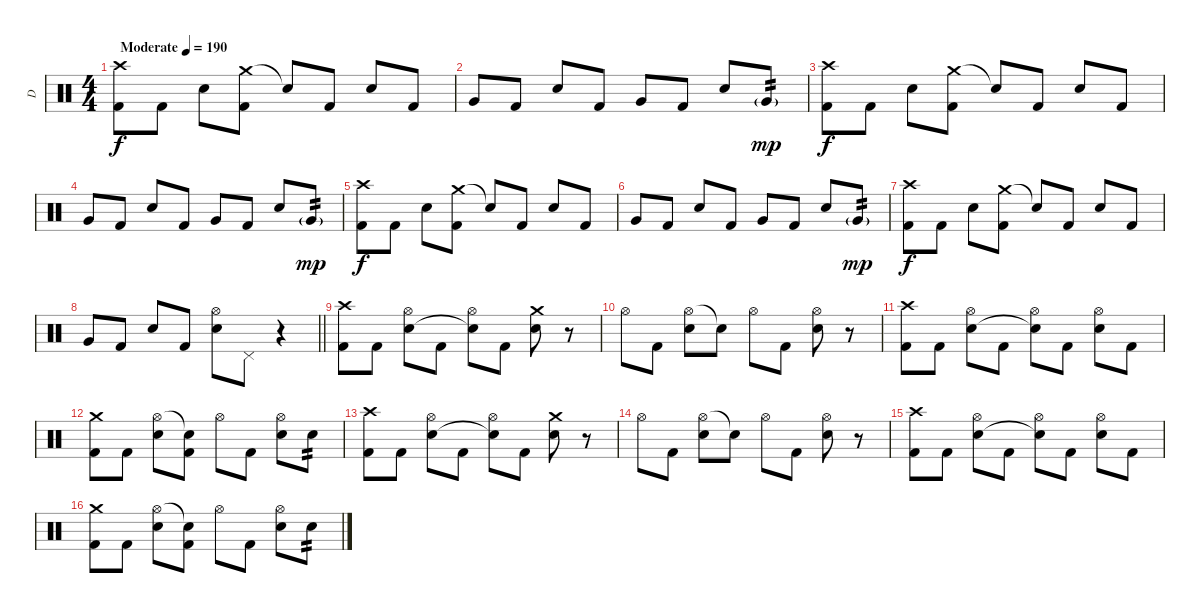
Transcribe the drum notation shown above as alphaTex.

\track ("D" "D") {instrument percussion}
\staff {score}
\articulation defaults
\ts (4 4)
\section ("" "")
\tempo (190 "Moderate")
\clef neutral
\ks c
("Crash high (hit)" "Kick (hit) 2").8{dy f} "Kick (hit) 2".8 "Electric Snare (hit)".8 ("Crash medium (hit)" "Kick (hit) 2").8 "Snare (hit)"{t}.8 "Kick (hit) 2".8 "Electric Snare (hit)".8 "Kick (hit) 2".8 |
"Very Low Tom (hit)".8 "Kick (hit) 2".8 "Electric Snare (hit)".8 "Kick (hit) 2".8 "Very Low Tom (hit)".8 "Kick (hit) 2".8 "Electric Snare (hit)".8 "Very Low Tom (hit)"{g}.8{tp 2 dy mp} |
("Crash high (hit)" "Kick (hit) 2").8{dy f} "Kick (hit) 2".8 "Electric Snare (hit)".8 ("Crash medium (hit)" "Kick (hit) 2").8 "Snare (hit)"{t}.8 "Kick (hit) 2".8 "Electric Snare (hit)".8 "Kick (hit) 2".8 |
"Very Low Tom (hit)".8 "Kick (hit) 2".8 "Electric Snare (hit)".8 "Kick (hit) 2".8 "Very Low Tom (hit)".8 "Kick (hit) 2".8 "Electric Snare (hit)".8 "Very Low Tom (hit)"{g}.8{tp 2 dy mp} |
("Crash high (hit)" "Kick (hit) 2").8{dy f} "Kick (hit) 2".8 "Electric Snare (hit)".8 ("Crash medium (hit)" "Kick (hit) 2").8 "Snare (hit)"{t}.8 "Kick (hit) 2".8 "Electric Snare (hit)".8 "Kick (hit) 2".8 |
"Very Low Tom (hit)".8 "Kick (hit) 2".8 "Electric Snare (hit)".8 "Kick (hit) 2".8 "Very Low Tom (hit)".8 "Kick (hit) 2".8 "Electric Snare (hit)".8 "Very Low Tom (hit)"{g}.8{tp 2 dy mp} |
("Crash high (hit)" "Kick (hit) 2").8{dy f} "Kick (hit) 2".8 "Electric Snare (hit)".8 ("Crash medium (hit)" "Kick (hit) 2").8 "Snare (hit)"{t}.8 "Kick (hit) 2".8 "Electric Snare (hit)".8 "Kick (hit) 2".8 |
\barLineRight lightlight "Very Low Tom (hit)".8 "Kick (hit) 2".8 "Electric Snare (hit)".8 "Kick (hit) 2".8
("Hi-Hat (open)" "Electric Snare (hit)").8 "Pedal Hi-Hat (hit)".8 r.4 |
\section ("" "")
("Crash high (hit)" "Kick (hit) 2").8 "Kick (hit) 2".8 ("Hi-Hat (open)" "Electric Snare (hit)").8 "Kick (hit) 2".8 ("Hi-Hat (open)" "Snare (hit)"{t}).8 "Kick (hit) 2".8 ("Crash medium (hit)" "Electric Snare (hit)").8 r.8 |
"Hi-Hat (open)".8 "Kick (hit) 2".8 ("Hi-Hat (open)" "Electric Snare (hit)").8 "Snare (hit)"{t}.8 "Hi-Hat (open)".8 "Kick (hit) 2".8 ("Hi-Hat (open)" "Electric Snare (hit)").8 r.8 |
("Crash high (hit)" "Kick (hit) 2").8 "Kick (hit) 2".8 ("Hi-Hat (open)" "Electric Snare (hit)").8 "Kick (hit) 2".8 ("Hi-Hat (open)" "Snare (hit)"{t}).8 "Kick (hit) 2".8 ("Hi-Hat (open)" "Electric Snare (hit)").8 "Kick (hit) 2".8 |
("Crash medium (hit)" "Kick (hit) 2").8 "Kick (hit) 2".8 ("Hi-Hat (open)" "Electric Snare (hit)").8 ("Snare (hit)"{t} "Kick (hit) 2").8 "Hi-Hat (open)".8 "Kick (hit) 2".8 ("Hi-Hat (open)" "Electric Snare (hit)").8 "Electric Snare (hit)".8{tp 2} |
("Crash high (hit)" "Kick (hit) 2").8 "Kick (hit) 2".8 ("Hi-Hat (open)" "Electric Snare (hit)").8 "Kick (hit) 2".8 ("Hi-Hat (open)" "Snare (hit)"{t}).8 "Kick (hit) 2".8 ("Crash medium (hit)" "Electric Snare (hit)").8 r.8 |
"Hi-Hat (open)".8 "Kick (hit) 2".8 ("Hi-Hat (open)" "Electric Snare (hit)").8 "Snare (hit)"{t}.8 "Hi-Hat (open)".8 "Kick (hit) 2".8 ("Hi-Hat (open)" "Electric Snare (hit)").8 r.8 |
("Crash high (hit)" "Kick (hit) 2").8 "Kick (hit) 2".8 ("Hi-Hat (open)" "Electric Snare (hit)").8 "Kick (hit) 2".8 ("Hi-Hat (open)" "Snare (hit)"{t}).8 "Kick (hit) 2".8 ("Hi-Hat (open)" "Electric Snare (hit)").8 "Kick (hit) 2".8 |
("Crash medium (hit)" "Kick (hit) 2").8 "Kick (hit) 2".8 ("Hi-Hat (open)" "Electric Snare (hit)").8 ("Snare (hit)"{t} "Kick (hit) 2").8 "Hi-Hat (open)".8 "Kick (hit) 2".8 ("Hi-Hat (open)" "Electric Snare (hit)").8 "Electric Snare (hit)".8{tp 2}
